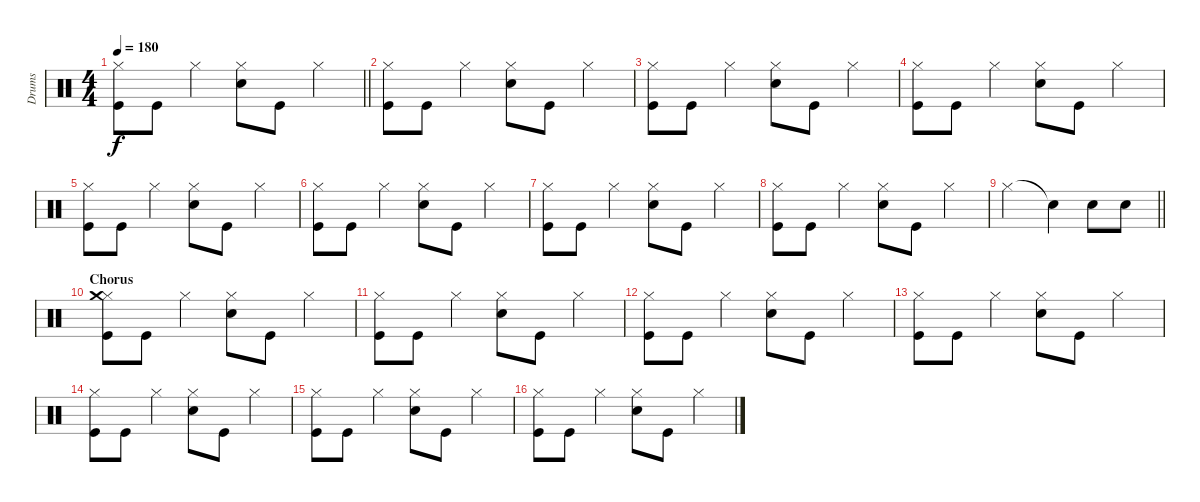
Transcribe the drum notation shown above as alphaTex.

\track ("Drums" "Drums") {instrument percussion}
\staff {score}
\articulation defaults
\ts (4 4)
\tempo 180
\clef neutral
\barLineRight lightlight
\ks c
("Hi-Hat (closed)" "Kick (hit)").8{dy f} "Kick (hit)".8 "Hi-Hat (closed)".4 ("Hi-Hat (closed)" "Snare (hit) 2").8 "Kick (hit)".8 "Hi-Hat (closed)".4 |
("Hi-Hat (closed)" "Kick (hit)").8 "Kick (hit)".8 "Hi-Hat (closed)".4 ("Hi-Hat (closed)" "Snare (hit) 2").8 "Kick (hit)".8 "Hi-Hat (closed)".4 |
("Hi-Hat (closed)" "Kick (hit)").8 "Kick (hit)".8 "Hi-Hat (closed)".4 ("Hi-Hat (closed)" "Snare (hit) 2").8 "Kick (hit)".8 "Hi-Hat (closed)".4 |
("Hi-Hat (closed)" "Kick (hit)").8 "Kick (hit)".8 "Hi-Hat (closed)".4 ("Hi-Hat (closed)" "Snare (hit) 2").8 "Kick (hit)".8 "Hi-Hat (closed)".4 |
("Hi-Hat (closed)" "Kick (hit)").8 "Kick (hit)".8 "Hi-Hat (closed)".4 ("Hi-Hat (closed)" "Snare (hit) 2").8 "Kick (hit)".8 "Hi-Hat (closed)".4 |
("Hi-Hat (closed)" "Kick (hit)").8 "Kick (hit)".8 "Hi-Hat (closed)".4 ("Hi-Hat (closed)" "Snare (hit) 2").8 "Kick (hit)".8 "Hi-Hat (closed)".4 |
("Hi-Hat (closed)" "Kick (hit)").8 "Kick (hit)".8 "Hi-Hat (closed)".4 ("Hi-Hat (closed)" "Snare (hit) 2").8 "Kick (hit)".8 "Hi-Hat (closed)".4 |
("Hi-Hat (closed)" "Kick (hit)").8 "Kick (hit)".8 "Hi-Hat (closed)".4 ("Hi-Hat (closed)" "Snare (hit) 2").8 "Kick (hit)".8 "Hi-Hat (closed)".4 |
\barLineRight lightlight "Hi-Hat (closed)".2 "Snare (hit)"{t}.4 "Snare (hit) 2".8 "Snare (hit) 2".8
|
\section ("" "Chorus")
("Hi-Hat (closed)" "Kick (hit)" "Crash medium (hit)").8 "Kick (hit)".8 "Hi-Hat (closed)".4 ("Hi-Hat (closed)" "Snare (hit) 2").8 "Kick (hit)".8 "Hi-Hat (closed)".4 |
("Hi-Hat (closed)" "Kick (hit)").8 "Kick (hit)".8 "Hi-Hat (closed)".4 ("Hi-Hat (closed)" "Snare (hit) 2").8 "Kick (hit)".8 "Hi-Hat (closed)".4 |
("Hi-Hat (closed)" "Kick (hit)").8 "Kick (hit)".8 "Hi-Hat (closed)".4 ("Hi-Hat (closed)" "Snare (hit) 2").8 "Kick (hit)".8 "Hi-Hat (closed)".4 |
("Hi-Hat (closed)" "Kick (hit)").8 "Kick (hit)".8 "Hi-Hat (closed)".4 ("Hi-Hat (closed)" "Snare (hit) 2").8 "Kick (hit)".8 "Hi-Hat (closed)".4 |
("Hi-Hat (closed)" "Kick (hit)").8 "Kick (hit)".8 "Hi-Hat (closed)".4 ("Hi-Hat (closed)" "Snare (hit) 2").8 "Kick (hit)".8 "Hi-Hat (closed)".4 |
("Hi-Hat (closed)" "Kick (hit)").8 "Kick (hit)".8 "Hi-Hat (closed)".4 ("Hi-Hat (closed)" "Snare (hit) 2").8 "Kick (hit)".8 "Hi-Hat (closed)".4 |
("Hi-Hat (closed)" "Kick (hit)").8 "Kick (hit)".8 "Hi-Hat (closed)".4 ("Hi-Hat (closed)" "Snare (hit) 2").8 "Kick (hit)".8 "Hi-Hat (closed)".4
